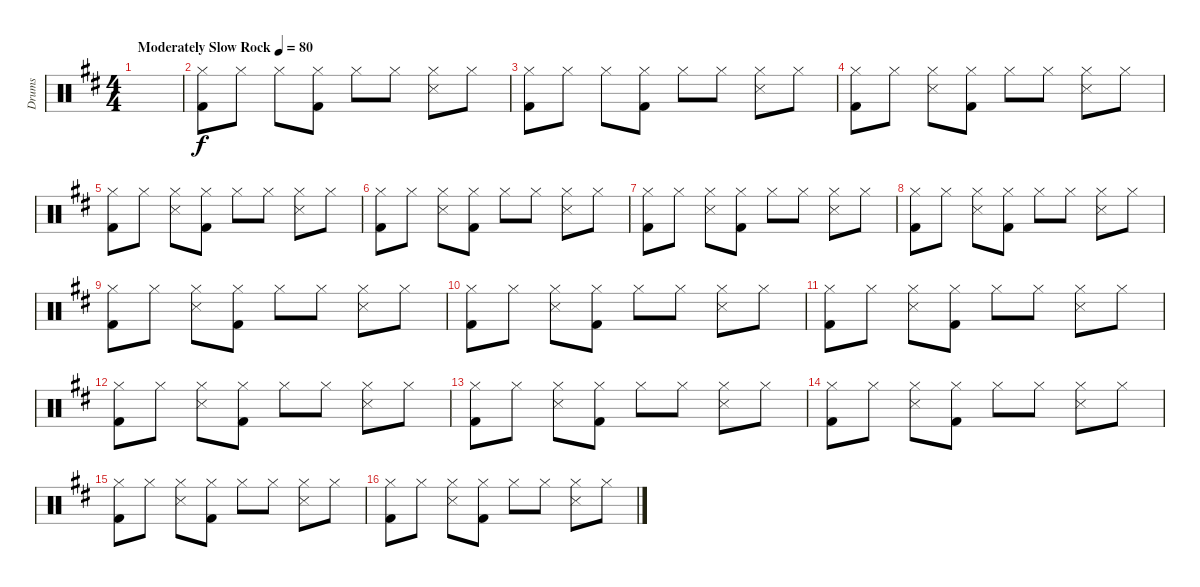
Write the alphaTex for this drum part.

\track ("Drums" "Drums") {instrument percussion}
\staff {score}
\articulation defaults
\ts (4 4)
\tempo (80 "Moderately Slow Rock")
\clef neutral
\ks d
|
("Hi-Hat (closed)" "Kick (hit) 2").8 "Hi-Hat (closed)".8 "Hi-Hat (closed)".8 ("Hi-Hat (closed)" "Kick (hit) 2").8 "Hi-Hat (closed)".8 "Hi-Hat (closed)".8 ("Hi-Hat (closed)" "Snare (side stick) 3").8 "Hi-Hat (closed)".8 |
("Hi-Hat (closed)" "Kick (hit) 2").8 "Hi-Hat (closed)".8 "Hi-Hat (closed)".8 ("Hi-Hat (closed)" "Kick (hit) 2").8 "Hi-Hat (closed)".8 "Hi-Hat (closed)".8 ("Hi-Hat (closed)" "Snare (side stick) 3").8 "Hi-Hat (closed)".8 |
("Hi-Hat (closed)" "Kick (hit) 2").8 "Hi-Hat (closed)".8 ("Hi-Hat (closed)" "Snare (side stick) 3").8 ("Hi-Hat (closed)" "Kick (hit) 2").8 "Hi-Hat (closed)".8 "Hi-Hat (closed)".8 ("Hi-Hat (closed)" "Snare (side stick) 3").8 "Hi-Hat (closed)".8 |
("Hi-Hat (closed)" "Kick (hit) 2").8 "Hi-Hat (closed)".8 ("Hi-Hat (closed)" "Snare (side stick) 3").8 ("Hi-Hat (closed)" "Kick (hit) 2").8 "Hi-Hat (closed)".8 "Hi-Hat (closed)".8 ("Hi-Hat (closed)" "Snare (side stick) 3").8 "Hi-Hat (closed)".8 |
("Hi-Hat (closed)" "Kick (hit) 2").8 "Hi-Hat (closed)".8 ("Hi-Hat (closed)" "Snare (side stick) 3").8 ("Hi-Hat (closed)" "Kick (hit) 2").8 "Hi-Hat (closed)".8 "Hi-Hat (closed)".8 ("Hi-Hat (closed)" "Snare (side stick) 3").8 "Hi-Hat (closed)".8 |
("Hi-Hat (closed)" "Kick (hit) 2").8 "Hi-Hat (closed)".8 ("Hi-Hat (closed)" "Snare (side stick) 3").8 ("Hi-Hat (closed)" "Kick (hit) 2").8 "Hi-Hat (closed)".8 "Hi-Hat (closed)".8 ("Hi-Hat (closed)" "Snare (side stick) 3").8 "Hi-Hat (closed)".8 |
("Hi-Hat (closed)" "Kick (hit) 2").8 "Hi-Hat (closed)".8 ("Hi-Hat (closed)" "Snare (side stick) 3").8 ("Hi-Hat (closed)" "Kick (hit) 2").8 "Hi-Hat (closed)".8 "Hi-Hat (closed)".8 ("Hi-Hat (closed)" "Snare (side stick) 3").8 "Hi-Hat (closed)".8 |
("Hi-Hat (closed)" "Kick (hit) 2").8 "Hi-Hat (closed)".8 ("Hi-Hat (closed)" "Snare (side stick) 3").8 ("Hi-Hat (closed)" "Kick (hit) 2").8 "Hi-Hat (closed)".8 "Hi-Hat (closed)".8 ("Hi-Hat (closed)" "Snare (side stick) 3").8 "Hi-Hat (closed)".8 |
("Hi-Hat (closed)" "Kick (hit) 2").8 "Hi-Hat (closed)".8 ("Hi-Hat (closed)" "Snare (side stick) 3").8 ("Hi-Hat (closed)" "Kick (hit) 2").8 "Hi-Hat (closed)".8 "Hi-Hat (closed)".8 ("Hi-Hat (closed)" "Snare (side stick) 3").8 "Hi-Hat (closed)".8 |
("Hi-Hat (closed)" "Kick (hit) 2").8 "Hi-Hat (closed)".8 ("Hi-Hat (closed)" "Snare (side stick) 3").8 ("Hi-Hat (closed)" "Kick (hit) 2").8 "Hi-Hat (closed)".8 "Hi-Hat (closed)".8 ("Hi-Hat (closed)" "Snare (side stick) 3").8 "Hi-Hat (closed)".8 |
("Hi-Hat (closed)" "Kick (hit) 2").8 "Hi-Hat (closed)".8 ("Hi-Hat (closed)" "Snare (side stick) 3").8 ("Hi-Hat (closed)" "Kick (hit) 2").8 "Hi-Hat (closed)".8 "Hi-Hat (closed)".8 ("Hi-Hat (closed)" "Snare (side stick) 3").8 "Hi-Hat (closed)".8 |
("Hi-Hat (closed)" "Kick (hit) 2").8 "Hi-Hat (closed)".8 ("Hi-Hat (closed)" "Snare (side stick) 3").8 ("Hi-Hat (closed)" "Kick (hit) 2").8 "Hi-Hat (closed)".8 "Hi-Hat (closed)".8 ("Hi-Hat (closed)" "Snare (side stick) 3").8 "Hi-Hat (closed)".8 |
("Hi-Hat (closed)" "Kick (hit) 2").8 "Hi-Hat (closed)".8 ("Hi-Hat (closed)" "Snare (side stick) 3").8 ("Hi-Hat (closed)" "Kick (hit) 2").8 "Hi-Hat (closed)".8 "Hi-Hat (closed)".8 ("Hi-Hat (closed)" "Snare (side stick) 3").8 "Hi-Hat (closed)".8 |
("Hi-Hat (closed)" "Kick (hit) 2").8 "Hi-Hat (closed)".8 ("Hi-Hat (closed)" "Snare (side stick) 3").8 ("Hi-Hat (closed)" "Kick (hit) 2").8 "Hi-Hat (closed)".8 "Hi-Hat (closed)".8 ("Hi-Hat (closed)" "Snare (side stick) 3").8 "Hi-Hat (closed)".8 |
("Hi-Hat (closed)" "Kick (hit) 2").8 "Hi-Hat (closed)".8 ("Hi-Hat (closed)" "Snare (side stick) 3").8 ("Hi-Hat (closed)" "Kick (hit) 2").8 "Hi-Hat (closed)".8 "Hi-Hat (closed)".8 ("Hi-Hat (closed)" "Snare (side stick) 3").8 "Hi-Hat (closed)".8
